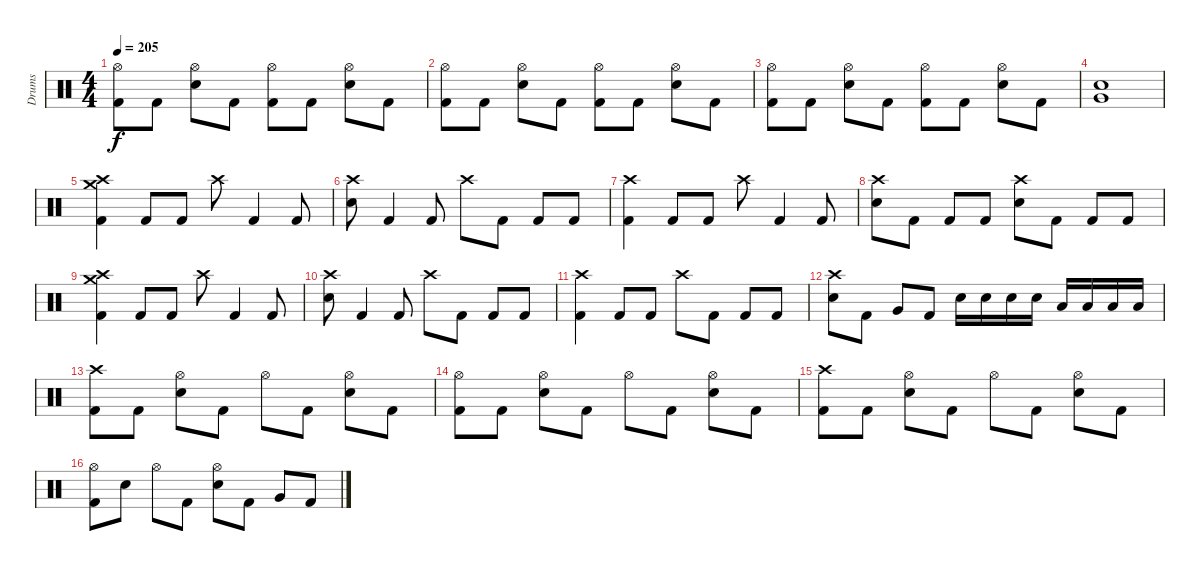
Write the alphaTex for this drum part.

\track ("Drums" "Drums") {instrument percussion}
\staff {score}
\articulation defaults
\ts (4 4)
\tempo 205
\clef neutral
\ks c
("Hi-Hat (open)" "Kick (hit) 2").8{dy f} "Kick (hit) 2".8 ("Hi-Hat (open)" "Electric Snare (hit)").8 "Kick (hit) 2".8 ("Hi-Hat (open)" "Kick (hit) 2").8 "Kick (hit) 2".8 ("Hi-Hat (open)" "Electric Snare (hit)").8 "Kick (hit) 2".8 |
("Hi-Hat (open)" "Kick (hit) 2").8 "Kick (hit) 2".8 ("Hi-Hat (open)" "Electric Snare (hit)").8 "Kick (hit) 2".8 ("Hi-Hat (open)" "Kick (hit) 2").8 "Kick (hit) 2".8 ("Hi-Hat (open)" "Electric Snare (hit)").8 "Kick (hit) 2".8 |
("Hi-Hat (open)" "Kick (hit) 2").8 "Kick (hit) 2".8 ("Hi-Hat (open)" "Electric Snare (hit)").8 "Kick (hit) 2".8 ("Hi-Hat (open)" "Kick (hit) 2").8 "Kick (hit) 2".8 ("Hi-Hat (open)" "Electric Snare (hit)").8 "Kick (hit) 2".8 |
("Very Low Tom (hit)" "Electric Snare (hit)").1 |
("Crash high (hit)" "Crash medium (hit)" "Kick (hit) 2").4 "Kick (hit) 2".8 "Kick (hit) 2".8 "Crash high (hit)".8 "Kick (hit) 2".4 "Kick (hit) 2".8 |
("Crash high (hit)" "Electric Snare (hit)").8 "Kick (hit) 2".4 "Kick (hit) 2".8 "Crash high (hit)".8 "Kick (hit) 2".8 "Kick (hit) 2".8 "Kick (hit) 2".8 |
("Crash high (hit)" "Kick (hit) 2").4 "Kick (hit) 2".8 "Kick (hit) 2".8 "Crash high (hit)".8 "Kick (hit) 2".4 "Kick (hit) 2".8 |
("Crash high (hit)" "Electric Snare (hit)").8 "Kick (hit) 2".8 "Kick (hit) 2".8 "Kick (hit) 2".8 ("Crash high (hit)" "Electric Snare (hit)").8 "Kick (hit) 2".8 "Kick (hit) 2".8 "Kick (hit) 2".8 |
("Crash high (hit)" "Crash medium (hit)" "Kick (hit) 2").4 "Kick (hit) 2".8 "Kick (hit) 2".8 "Crash high (hit)".8 "Kick (hit) 2".4 "Kick (hit) 2".8 |
("Crash high (hit)" "Electric Snare (hit)").8 "Kick (hit) 2".4 "Kick (hit) 2".8 "Crash high (hit)".8 "Kick (hit) 2".8 "Kick (hit) 2".8 "Kick (hit) 2".8 |
("Crash high (hit)" "Kick (hit) 2").4 "Kick (hit) 2".8 "Kick (hit) 2".8 "Crash high (hit)".8 "Kick (hit) 2".8 "Kick (hit) 2".8 "Kick (hit) 2".8 |
("Crash high (hit)" "Electric Snare (hit)").8 "Kick (hit) 2".8 "Very Low Tom (hit)".8 "Kick (hit) 2".8 "Electric Snare (hit)".16 "Electric Snare (hit)".16 "Electric Snare (hit)".16 "Electric Snare (hit)".16 "Low Tom (hit)".16 "Low Tom (hit)".16 "Low Tom (hit)".16 "Low Tom (hit)".16 |
("Crash high (hit)" "Kick (hit) 2").8 "Kick (hit) 2".8 ("Hi-Hat (open)" "Electric Snare (hit)").8 "Kick (hit) 2".8 "Hi-Hat (open)".8 "Kick (hit) 2".8 ("Hi-Hat (open)" "Electric Snare (hit)").8 "Kick (hit) 2".8 |
("Hi-Hat (open)" "Kick (hit) 2").8 "Kick (hit) 2".8 ("Hi-Hat (open)" "Electric Snare (hit)").8 "Kick (hit) 2".8 "Hi-Hat (open)".8 "Kick (hit) 2".8 ("Hi-Hat (open)" "Electric Snare (hit)").8 "Kick (hit) 2".8 |
("Crash high (hit)" "Kick (hit) 2").8 "Kick (hit) 2".8 ("Hi-Hat (open)" "Electric Snare (hit)").8 "Kick (hit) 2".8 "Hi-Hat (open)".8 "Kick (hit) 2".8 ("Hi-Hat (open)" "Electric Snare (hit)").8 "Kick (hit) 2".8 |
("Hi-Hat (open)" "Kick (hit) 2").8 "Electric Snare (hit)".8 "Hi-Hat (open)".8 "Kick (hit) 2".8 ("Hi-Hat (open)" "Electric Snare (hit)").8 "Kick (hit) 2".8 "Very Low Tom (hit)".8 "Kick (hit) 2".8
